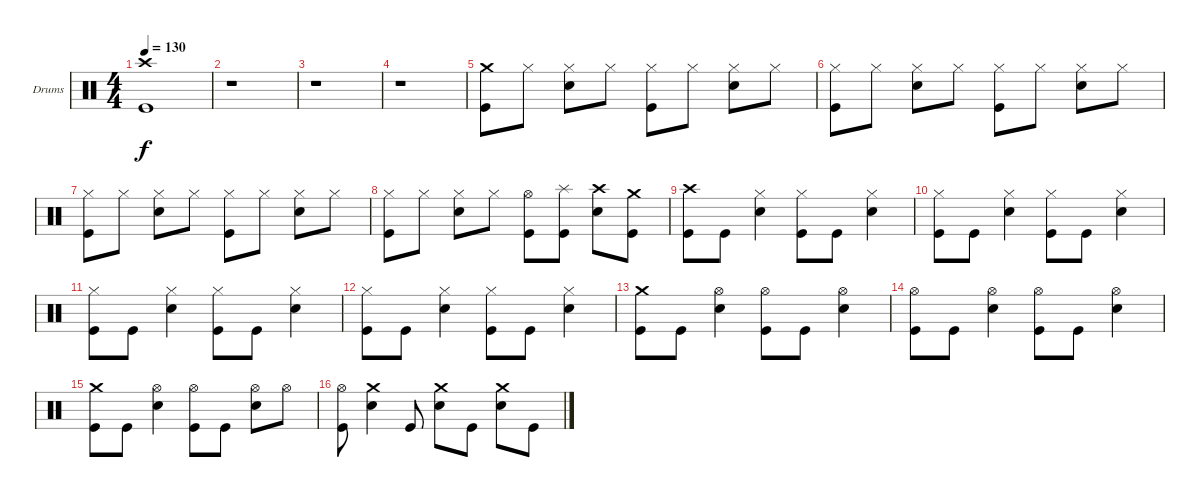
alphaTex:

\defaultSystemsLayout 4
\bracketExtendMode groupsimilarinstruments
\firstSystemTrackNameOrientation horizontal
\otherSystemsTrackNameOrientation horizontal
\track ("Drumkit" "Drums") {instrument percussion}
\staff {score}
\articulation defaults
\ts (4 4)
\tempo 130
\clef neutral
\scale
0.333333
\ks c
("Crash high (hit)" "Kick (hit)").1{dy f} |
\scale
0.333333 r.1 |
\scale
0.333333 r.1 |
\scale
0.333333 r.1 |
\scale
0.333333 ("Crash medium (hit)" "Kick (hit)").8 "Hi-Hat (closed)".8 ("Hi-Hat (closed)" "Snare (hit) 2").8 "Hi-Hat (closed)".8 ("Hi-Hat (closed)" "Kick (hit)").8 "Hi-Hat (closed)".8 ("Hi-Hat (closed)" "Snare (hit) 2").8 "Hi-Hat (closed)".8 |
\scale
0.333333 ("Hi-Hat (closed)" "Kick (hit)").8 "Hi-Hat (closed)".8 ("Hi-Hat (closed)" "Snare (hit) 2").8 "Hi-Hat (closed)".8 ("Hi-Hat (closed)" "Kick (hit)").8 "Hi-Hat (closed)".8 ("Hi-Hat (closed)" "Snare (hit) 2").8 "Hi-Hat (closed)".8 |
\scale
0.333333 ("Hi-Hat (closed)" "Kick (hit)").8 "Hi-Hat (closed)".8 ("Hi-Hat (closed)" "Snare (hit) 2").8 "Hi-Hat (closed)".8 ("Hi-Hat (closed)" "Kick (hit)").8 "Hi-Hat (closed)".8 ("Hi-Hat (closed)" "Snare (hit) 2").8 "Hi-Hat (closed)".8 |
\scale
0.333333 ("Hi-Hat (closed)" "Kick (hit)").8 "Hi-Hat (closed)".8 ("Hi-Hat (closed)" "Snare (hit) 2").8 "Hi-Hat (closed)".8 ("Hi-Hat (open)" "Kick (hit)").8 ("Splash (hit)" "Kick (hit)").8 ("Crash high (hit)" "Snare (hit) 2").8 ("Crash medium (hit)" "Kick (hit)").8 |
\scale
0.333333 ("Crash high (hit)" "Kick (hit)").8 "Kick (hit)".8 ("Hi-Hat (closed)" "Snare (hit) 2").4 ("Hi-Hat (closed)" "Kick (hit)").8 "Kick (hit)".8 ("Hi-Hat (closed)" "Snare (hit) 2").4 |
\scale
0.333333 ("Hi-Hat (closed)" "Kick (hit)").8 "Kick (hit)".8 ("Hi-Hat (closed)" "Snare (hit) 2").4 ("Hi-Hat (closed)" "Kick (hit)").8 "Kick (hit)".8 ("Hi-Hat (closed)" "Snare (hit) 2").4 |
\scale
0.333333 ("Hi-Hat (closed)" "Kick (hit)").8 "Kick (hit)".8 ("Hi-Hat (closed)" "Snare (hit) 2").4 ("Hi-Hat (closed)" "Kick (hit)").8 "Kick (hit)".8 ("Hi-Hat (closed)" "Snare (hit) 2").4 |
\scale
0.333333 ("Hi-Hat (closed)" "Kick (hit)").8 "Kick (hit)".8 ("Hi-Hat (closed)" "Snare (hit) 2").4 ("Hi-Hat (closed)" "Kick (hit)").8 "Kick (hit)".8 ("Hi-Hat (closed)" "Snare (hit) 2").4 |
\scale
0.333333 ("Crash medium (hit)" "Kick (hit)").8 "Kick (hit)".8 ("Hi-Hat (open)" "Snare (hit) 2").4 ("Hi-Hat (open)" "Kick (hit)").8 "Kick (hit)".8 ("Hi-Hat (open)" "Snare (hit) 2").4 |
\scale
0.333333 ("Hi-Hat (open)" "Kick (hit)").8 "Kick (hit)".8 ("Hi-Hat (open)" "Snare (hit) 2").4 ("Hi-Hat (open)" "Kick (hit)").8 "Kick (hit)".8 ("Hi-Hat (open)" "Snare (hit) 2").4 |
\scale
0.333333 ("Crash medium (hit)" "Kick (hit)").8 "Kick (hit)".8 ("Hi-Hat (open)" "Snare (hit) 2").4 ("Hi-Hat (open)" "Kick (hit)").8 "Kick (hit)".8 ("Hi-Hat (open)" "Snare (hit) 2").8 "Hi-Hat (open)".8 |
\scale
0.333333 ("Hi-Hat (open)" "Kick (hit)").8 ("Crash medium (hit)" "Snare (hit) 2").4 "Kick (hit)".8 ("Crash medium (hit)" "Snare (hit) 2").8 "Kick (hit)".8 ("Crash medium (hit)" "Snare (hit) 2").8 "Kick (hit)".8
